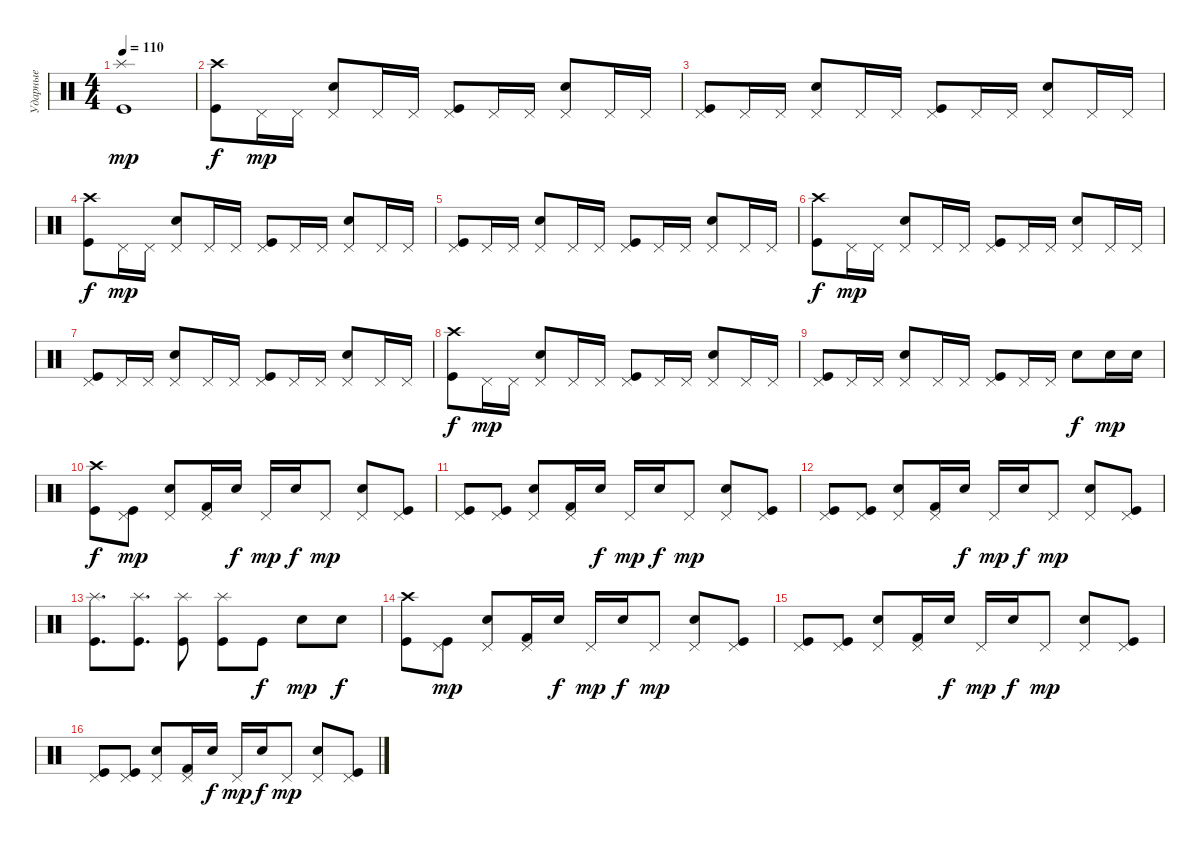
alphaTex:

\track ("Ударные" "Ударные") {instrument percussion}
\staff {score}
\articulation defaults
\ts (4 4)
\tempo 110
\clef neutral
\ks c
("Splash (hit)" "Kick (hit)").1{dy mp} |
("Crash high (hit)" "Kick (hit)").8{dy f} "Pedal Hi-Hat (hit)".16{dy mp} "Pedal Hi-Hat (hit)".16 ("Pedal Hi-Hat (hit)" "Snare (hit) 2").8 "Pedal Hi-Hat (hit)".16 "Pedal Hi-Hat (hit)".16 ("Pedal Hi-Hat (hit)" "Kick (hit)").8 "Pedal Hi-Hat (hit)".16 "Pedal Hi-Hat (hit)".16 ("Pedal Hi-Hat (hit)" "Snare (hit) 2").8 "Pedal Hi-Hat (hit)".16 "Pedal Hi-Hat (hit)".16 |
("Pedal Hi-Hat (hit)" "Kick (hit)").8 "Pedal Hi-Hat (hit)".16 "Pedal Hi-Hat (hit)".16 ("Pedal Hi-Hat (hit)" "Snare (hit) 2").8 "Pedal Hi-Hat (hit)".16 "Pedal Hi-Hat (hit)".16 ("Pedal Hi-Hat (hit)" "Kick (hit)").8 "Pedal Hi-Hat (hit)".16 "Pedal Hi-Hat (hit)".16 ("Pedal Hi-Hat (hit)" "Snare (hit) 2").8 "Pedal Hi-Hat (hit)".16 "Pedal Hi-Hat (hit)".16 |
("Crash high (hit)" "Kick (hit)").8{dy f} "Pedal Hi-Hat (hit)".16{dy mp} "Pedal Hi-Hat (hit)".16 ("Pedal Hi-Hat (hit)" "Snare (hit) 2").8 "Pedal Hi-Hat (hit)".16 "Pedal Hi-Hat (hit)".16 ("Pedal Hi-Hat (hit)" "Kick (hit)").8 "Pedal Hi-Hat (hit)".16 "Pedal Hi-Hat (hit)".16 ("Pedal Hi-Hat (hit)" "Snare (hit) 2").8 "Pedal Hi-Hat (hit)".16 "Pedal Hi-Hat (hit)".16 |
("Pedal Hi-Hat (hit)" "Kick (hit)").8 "Pedal Hi-Hat (hit)".16 "Pedal Hi-Hat (hit)".16 ("Pedal Hi-Hat (hit)" "Snare (hit) 2").8 "Pedal Hi-Hat (hit)".16 "Pedal Hi-Hat (hit)".16 ("Pedal Hi-Hat (hit)" "Kick (hit)").8 "Pedal Hi-Hat (hit)".16 "Pedal Hi-Hat (hit)".16 ("Pedal Hi-Hat (hit)" "Snare (hit) 2").8 "Pedal Hi-Hat (hit)".16 "Pedal Hi-Hat (hit)".16 |
("Crash high (hit)" "Kick (hit)").8{dy f} "Pedal Hi-Hat (hit)".16{dy mp} "Pedal Hi-Hat (hit)".16 ("Pedal Hi-Hat (hit)" "Snare (hit) 2").8 "Pedal Hi-Hat (hit)".16 "Pedal Hi-Hat (hit)".16 ("Pedal Hi-Hat (hit)" "Kick (hit)").8 "Pedal Hi-Hat (hit)".16 "Pedal Hi-Hat (hit)".16 ("Pedal Hi-Hat (hit)" "Snare (hit) 2").8 "Pedal Hi-Hat (hit)".16 "Pedal Hi-Hat (hit)".16 |
("Pedal Hi-Hat (hit)" "Kick (hit)").8 "Pedal Hi-Hat (hit)".16 "Pedal Hi-Hat (hit)".16 ("Pedal Hi-Hat (hit)" "Snare (hit) 2").8 "Pedal Hi-Hat (hit)".16 "Pedal Hi-Hat (hit)".16 ("Pedal Hi-Hat (hit)" "Kick (hit)").8 "Pedal Hi-Hat (hit)".16 "Pedal Hi-Hat (hit)".16 ("Pedal Hi-Hat (hit)" "Snare (hit) 2").8 "Pedal Hi-Hat (hit)".16 "Pedal Hi-Hat (hit)".16 |
("Crash high (hit)" "Kick (hit)").8{dy f} "Pedal Hi-Hat (hit)".16{dy mp} "Pedal Hi-Hat (hit)".16 ("Pedal Hi-Hat (hit)" "Snare (hit) 2").8 "Pedal Hi-Hat (hit)".16 "Pedal Hi-Hat (hit)".16 ("Pedal Hi-Hat (hit)" "Kick (hit)").8 "Pedal Hi-Hat (hit)".16 "Pedal Hi-Hat (hit)".16 ("Pedal Hi-Hat (hit)" "Snare (hit) 2").8 "Pedal Hi-Hat (hit)".16 "Pedal Hi-Hat (hit)".16 |
("Pedal Hi-Hat (hit)" "Kick (hit)").8 "Pedal Hi-Hat (hit)".16 "Pedal Hi-Hat (hit)".16 ("Pedal Hi-Hat (hit)" "Snare (hit) 2").8 "Pedal Hi-Hat (hit)".16 "Pedal Hi-Hat (hit)".16 ("Pedal Hi-Hat (hit)" "Kick (hit)").8 "Pedal Hi-Hat (hit)".16 "Pedal Hi-Hat (hit)".16 "Snare (hit) 2".8{dy f} "Snare (hit) 2".16{dy mp} "Snare (hit) 2".16 |
("Crash high (hit)" "Kick (hit)").8{dy f} ("Pedal Hi-Hat (hit)" "Kick (hit)").8{dy mp} ("Pedal Hi-Hat (hit)" "Snare (hit) 2").8 ("Pedal Hi-Hat (hit)" "Kick (hit) 2").16 "Snare (hit) 2".16{dy f} "Pedal Hi-Hat (hit)".16{dy mp} "Snare (hit) 2".16{dy f} "Pedal Hi-Hat (hit)".8{dy mp} ("Pedal Hi-Hat (hit)" "Snare (hit) 2").8 ("Pedal Hi-Hat (hit)" "Kick (hit)").8 |
("Pedal Hi-Hat (hit)" "Kick (hit)").8 ("Pedal Hi-Hat (hit)" "Kick (hit)").8 ("Pedal Hi-Hat (hit)" "Snare (hit) 2").8 ("Pedal Hi-Hat (hit)" "Kick (hit) 2").16 "Snare (hit) 2".16{dy f} "Pedal Hi-Hat (hit)".16{dy mp} "Snare (hit) 2".16{dy f} "Pedal Hi-Hat (hit)".8{dy mp} ("Pedal Hi-Hat (hit)" "Snare (hit) 2").8 ("Pedal Hi-Hat (hit)" "Kick (hit)").8 |
("Pedal Hi-Hat (hit)" "Kick (hit)").8 ("Pedal Hi-Hat (hit)" "Kick (hit)").8 ("Pedal Hi-Hat (hit)" "Snare (hit) 2").8 ("Pedal Hi-Hat (hit)" "Kick (hit) 2").16 "Snare (hit) 2".16{dy f} "Pedal Hi-Hat (hit)".16{dy mp} "Snare (hit) 2".16{dy f} "Pedal Hi-Hat (hit)".8{dy mp} ("Pedal Hi-Hat (hit)" "Snare (hit) 2").8 ("Pedal Hi-Hat (hit)" "Kick (hit)").8 |
("Splash (hit)" "Kick (hit)").8{d} ("Splash (hit)" "Kick (hit)").8{d} ("Splash (hit)" "Kick (hit)").8 ("Splash (hit)" "Kick (hit)").8 "Kick (hit)".8{dy f} "Snare (hit) 2".8{dy mp} "Snare (hit) 2".8{dy f} |
("Crash high (hit)" "Kick (hit)").8 ("Pedal Hi-Hat (hit)" "Kick (hit)").8{dy mp} ("Pedal Hi-Hat (hit)" "Snare (hit) 2").8 ("Pedal Hi-Hat (hit)" "Kick (hit) 2").16 "Snare (hit) 2".16{dy f} "Pedal Hi-Hat (hit)".16{dy mp} "Snare (hit) 2".16{dy f} "Pedal Hi-Hat (hit)".8{dy mp} ("Pedal Hi-Hat (hit)" "Snare (hit) 2").8 ("Pedal Hi-Hat (hit)" "Kick (hit)").8 |
("Pedal Hi-Hat (hit)" "Kick (hit)").8 ("Pedal Hi-Hat (hit)" "Kick (hit)").8 ("Pedal Hi-Hat (hit)" "Snare (hit) 2").8 ("Pedal Hi-Hat (hit)" "Kick (hit) 2").16 "Snare (hit) 2".16{dy f} "Pedal Hi-Hat (hit)".16{dy mp} "Snare (hit) 2".16{dy f} "Pedal Hi-Hat (hit)".8{dy mp} ("Pedal Hi-Hat (hit)" "Snare (hit) 2").8 ("Pedal Hi-Hat (hit)" "Kick (hit)").8 |
("Pedal Hi-Hat (hit)" "Kick (hit)").8 ("Pedal Hi-Hat (hit)" "Kick (hit)").8 ("Pedal Hi-Hat (hit)" "Snare (hit) 2").8 ("Pedal Hi-Hat (hit)" "Kick (hit) 2").16 "Snare (hit) 2".16{dy f} "Pedal Hi-Hat (hit)".16{dy mp} "Snare (hit) 2".16{dy f} "Pedal Hi-Hat (hit)".8{dy mp} ("Pedal Hi-Hat (hit)" "Snare (hit) 2").8 ("Pedal Hi-Hat (hit)" "Kick (hit)").8
